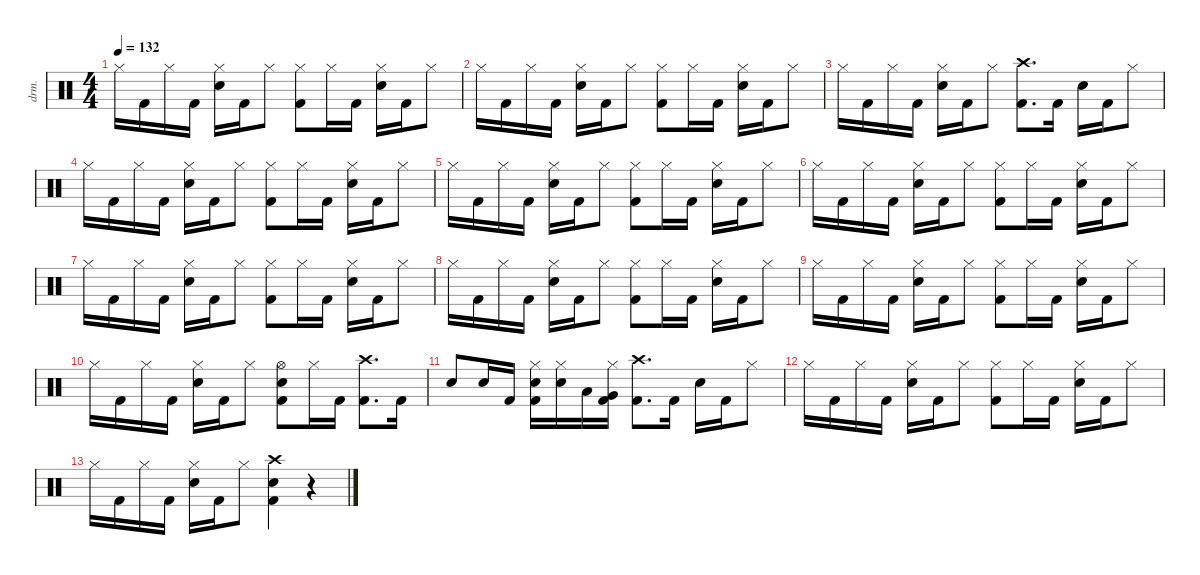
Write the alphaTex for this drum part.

\defaultSystemsLayout 4
\hideDynamics
\bracketExtendMode nobrackets
\track ("drums" "drm.") {instrument percussion}
\staff {score}
\articulation defaults
\ts (4 4)
\tempo 132
\clef neutral
\ks c "Hi-Hat (closed)".16{dy fff} "Kick (hit) 2".16 "Hi-Hat (closed)".16 "Kick (hit) 2".16
("Snare (hit) 2" "Hi-Hat (closed)").16 "Kick (hit) 2".16 "Hi-Hat (closed)".8 ("Kick (hit) 2" "Hi-Hat (closed)").8 "Hi-Hat (closed)".16 "Kick (hit) 2".16 ("Snare (hit) 2" "Hi-Hat (closed)").16 "Kick (hit) 2".16 "Hi-Hat (closed)".8 |
"Hi-Hat (closed)".16 "Kick (hit) 2".16 "Hi-Hat (closed)".16 "Kick (hit) 2".16 ("Snare (hit) 2" "Hi-Hat (closed)").16 "Kick (hit) 2".16 "Hi-Hat (closed)".8 ("Kick (hit) 2" "Hi-Hat (closed)").8 "Hi-Hat (closed)".16 "Kick (hit) 2".16 ("Snare (hit) 2" "Hi-Hat (closed)").16 "Kick (hit) 2".16 "Hi-Hat (closed)".8 |
"Hi-Hat (closed)".16 "Kick (hit) 2".16 "Hi-Hat (closed)".16 "Kick (hit) 2".16 ("Snare (hit) 2" "Hi-Hat (closed)").16 "Kick (hit) 2".16 "Hi-Hat (closed)".8 ("Kick (hit) 2" "Crash high (hit)").8{d} "Kick (hit) 2".16 "Snare (hit) 2".16 "Kick (hit) 2".16 "Hi-Hat (closed)".8 |
"Hi-Hat (closed)".16 "Kick (hit) 2".16 "Hi-Hat (closed)".16 "Kick (hit) 2".16 ("Snare (hit) 2" "Hi-Hat (closed)").16 "Kick (hit) 2".16 "Hi-Hat (closed)".8 ("Kick (hit) 2" "Hi-Hat (closed)").8 "Hi-Hat (closed)".16 "Kick (hit) 2".16 ("Snare (hit) 2" "Hi-Hat (closed)").16 "Kick (hit) 2".16 "Hi-Hat (closed)".8 |
"Hi-Hat (closed)".16 "Kick (hit) 2".16 "Hi-Hat (closed)".16 "Kick (hit) 2".16 ("Snare (hit) 2" "Hi-Hat (closed)").16 "Kick (hit) 2".16 "Hi-Hat (closed)".8 ("Kick (hit) 2" "Hi-Hat (closed)").8 "Hi-Hat (closed)".16 "Kick (hit) 2".16 ("Snare (hit) 2" "Hi-Hat (closed)").16 "Kick (hit) 2".16 "Hi-Hat (closed)".8 |
"Hi-Hat (closed)".16 "Kick (hit) 2".16 "Hi-Hat (closed)".16 "Kick (hit) 2".16 ("Snare (hit) 2" "Hi-Hat (closed)").16 "Kick (hit) 2".16 "Hi-Hat (closed)".8 ("Kick (hit) 2" "Hi-Hat (closed)").8 "Hi-Hat (closed)".16 "Kick (hit) 2".16 ("Snare (hit) 2" "Hi-Hat (closed)").16 "Kick (hit) 2".16 "Hi-Hat (closed)".8 |
"Hi-Hat (closed)".16 "Kick (hit) 2".16 "Hi-Hat (closed)".16 "Kick (hit) 2".16 ("Snare (hit) 2" "Hi-Hat (closed)").16 "Kick (hit) 2".16 "Hi-Hat (closed)".8 ("Kick (hit) 2" "Hi-Hat (closed)").8 "Hi-Hat (closed)".16 "Kick (hit) 2".16 ("Snare (hit) 2" "Hi-Hat (closed)").16 "Kick (hit) 2".16 "Hi-Hat (closed)".8 |
"Hi-Hat (closed)".16 "Kick (hit) 2".16 "Hi-Hat (closed)".16 "Kick (hit) 2".16 ("Snare (hit) 2" "Hi-Hat (closed)").16 "Kick (hit) 2".16 "Hi-Hat (closed)".8 ("Kick (hit) 2" "Hi-Hat (closed)").8 "Hi-Hat (closed)".16 "Kick (hit) 2".16 ("Snare (hit) 2" "Hi-Hat (closed)").16 "Kick (hit) 2".16 "Hi-Hat (closed)".8 |
"Hi-Hat (closed)".16 "Kick (hit) 2".16 "Hi-Hat (closed)".16 "Kick (hit) 2".16 ("Snare (hit) 2" "Hi-Hat (closed)").16 "Kick (hit) 2".16 "Hi-Hat (closed)".8 ("Kick (hit) 2" "Hi-Hat (closed)").8 "Hi-Hat (closed)".16 "Kick (hit) 2".16 ("Snare (hit) 2" "Hi-Hat (closed)").16 "Kick (hit) 2".16 "Hi-Hat (closed)".8 |
"Hi-Hat (closed)".16 "Kick (hit) 2".16 "Hi-Hat (closed)".16 "Kick (hit) 2".16 ("Snare (hit) 2" "Hi-Hat (closed)").16 "Kick (hit) 2".16 "Hi-Hat (closed)".8 ("Kick (hit) 2" "Snare (hit) 2" "Hi-Hat (open)").8 "Hi-Hat (closed)".16 "Kick (hit) 2".16 ("Kick (hit) 2" "Crash high (hit)").8{d} "Kick (hit) 2".16 |
"Snare (hit) 2".8 "Snare (hit) 2".16 "Kick (hit) 2".16 ("Kick (hit) 2" "Snare (hit) 2" "Hi-Hat (closed)").16 ("Snare (hit) 2" "Hi-Hat (closed)").16 "Low Tom (hit)".16 ("Kick (hit) 2" "Very Low Tom (hit)" "Hi-Hat (closed)").16 ("Kick (hit) 2" "Crash high (hit)").8{d} "Kick (hit) 2".16 "Snare (hit) 2".16 "Kick (hit) 2".16 "Hi-Hat (closed)".8 |
"Hi-Hat (closed)".16 "Kick (hit) 2".16 "Hi-Hat (closed)".16 "Kick (hit) 2".16 ("Snare (hit) 2" "Hi-Hat (closed)").16 "Kick (hit) 2".16 "Hi-Hat (closed)".8 ("Kick (hit) 2" "Hi-Hat (closed)").8 "Hi-Hat (closed)".16 "Kick (hit) 2".16 ("Snare (hit) 2" "Hi-Hat (closed)").16 "Kick (hit) 2".16 "Hi-Hat (closed)".8 |
"Hi-Hat (closed)".16 "Kick (hit) 2".16 "Hi-Hat (closed)".16 "Kick (hit) 2".16 ("Snare (hit) 2" "Hi-Hat (closed)").16 "Kick (hit) 2".16 "Hi-Hat (closed)".8 ("Kick (hit) 2" "Snare (hit) 2" "Crash high (hit)").4 r.4
